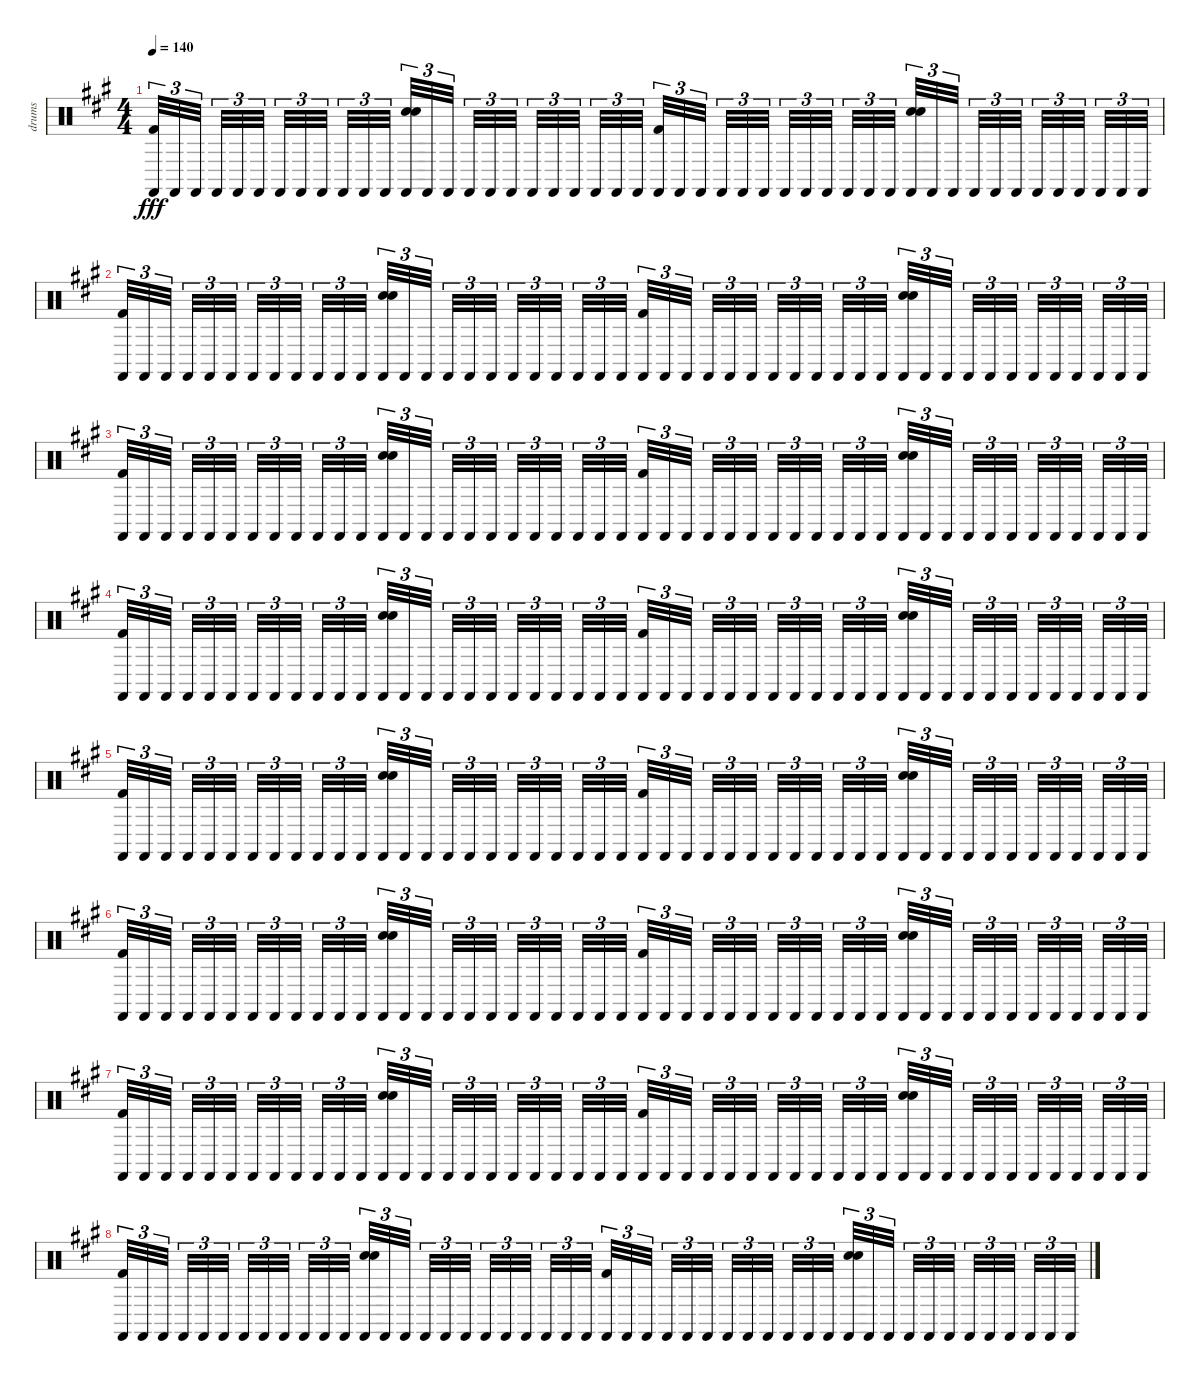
\track ("drums" "drums") {instrument percussion}
\staff {score}
\articulation defaults
\ts (4 4)
\tempo 140
\clef neutral
\ks f#minor
("Castanets (hit)" "Kick (hit) 2").32{tu (3 2) dy fff} "Castanets (hit)".32{tu (3 2)} "Castanets (hit)".32{tu (3 2) beam splitsecondary} "Castanets (hit)".32{tu (3 2)} "Castanets (hit)".32{tu (3 2)} "Castanets (hit)".32{tu (3 2) beam splitsecondary} "Castanets (hit)".32{tu (3 2)} "Castanets (hit)".32{tu (3 2)} "Castanets (hit)".32{tu (3 2) beam splitsecondary} "Castanets (hit)".32{tu (3 2)} "Castanets (hit)".32{tu (3 2)} "Castanets (hit)".32{tu (3 2)} ("Castanets (hit)" "Hand Clap (hit)" "Electric Snare (hit)").32{tu (3 2)} "Castanets (hit)".32{tu (3 2)} "Castanets (hit)".32{tu (3 2) beam splitsecondary} "Castanets (hit)".32{tu (3 2)} "Castanets (hit)".32{tu (3 2)} "Castanets (hit)".32{tu (3 2) beam splitsecondary} "Castanets (hit)".32{tu (3 2)} "Castanets (hit)".32{tu (3 2)} "Castanets (hit)".32{tu (3 2) beam splitsecondary} "Castanets (hit)".32{tu (3 2)} "Castanets (hit)".32{tu (3 2)} "Castanets (hit)".32{tu (3 2)} ("Castanets (hit)" "Kick (hit) 2").32{tu (3 2)} "Castanets (hit)".32{tu (3 2)} "Castanets (hit)".32{tu (3 2) beam splitsecondary} "Castanets (hit)".32{tu (3 2)} "Castanets (hit)".32{tu (3 2)} "Castanets (hit)".32{tu (3 2) beam splitsecondary} "Castanets (hit)".32{tu (3 2)} "Castanets (hit)".32{tu (3 2)} "Castanets (hit)".32{tu (3 2) beam splitsecondary} "Castanets (hit)".32{tu (3 2)} "Castanets (hit)".32{tu (3 2)} "Castanets (hit)".32{tu (3 2)} ("Castanets (hit)" "Hand Clap (hit)" "Electric Snare (hit)").32{tu (3 2)} "Castanets (hit)".32{tu (3 2)} "Castanets (hit)".32{tu (3 2) beam splitsecondary} "Castanets (hit)".32{tu (3 2)} "Castanets (hit)".32{tu (3 2)} "Castanets (hit)".32{tu (3 2) beam splitsecondary} "Castanets (hit)".32{tu (3 2)} "Castanets (hit)".32{tu (3 2)} "Castanets (hit)".32{tu (3 2) beam splitsecondary} "Castanets (hit)".32{tu (3 2)} "Castanets (hit)".32{tu (3 2)} "Castanets (hit)".32{tu (3 2)} |
("Castanets (hit)" "Kick (hit) 2").32{tu (3 2)} "Castanets (hit)".32{tu (3 2)} "Castanets (hit)".32{tu (3 2) beam splitsecondary} "Castanets (hit)".32{tu (3 2)} "Castanets (hit)".32{tu (3 2)} "Castanets (hit)".32{tu (3 2) beam splitsecondary} "Castanets (hit)".32{tu (3 2)} "Castanets (hit)".32{tu (3 2)} "Castanets (hit)".32{tu (3 2) beam splitsecondary} "Castanets (hit)".32{tu (3 2)} "Castanets (hit)".32{tu (3 2)} "Castanets (hit)".32{tu (3 2)} ("Castanets (hit)" "Hand Clap (hit)" "Electric Snare (hit)").32{tu (3 2)} "Castanets (hit)".32{tu (3 2)} "Castanets (hit)".32{tu (3 2) beam splitsecondary} "Castanets (hit)".32{tu (3 2)} "Castanets (hit)".32{tu (3 2)} "Castanets (hit)".32{tu (3 2) beam splitsecondary} "Castanets (hit)".32{tu (3 2)} "Castanets (hit)".32{tu (3 2)} "Castanets (hit)".32{tu (3 2) beam splitsecondary} "Castanets (hit)".32{tu (3 2)} "Castanets (hit)".32{tu (3 2)} "Castanets (hit)".32{tu (3 2)} ("Castanets (hit)" "Kick (hit) 2").32{tu (3 2)} "Castanets (hit)".32{tu (3 2)} "Castanets (hit)".32{tu (3 2) beam splitsecondary} "Castanets (hit)".32{tu (3 2)} "Castanets (hit)".32{tu (3 2)} "Castanets (hit)".32{tu (3 2) beam splitsecondary} "Castanets (hit)".32{tu (3 2)} "Castanets (hit)".32{tu (3 2)} "Castanets (hit)".32{tu (3 2) beam splitsecondary} "Castanets (hit)".32{tu (3 2)} "Castanets (hit)".32{tu (3 2)} "Castanets (hit)".32{tu (3 2)} ("Castanets (hit)" "Hand Clap (hit)" "Electric Snare (hit)").32{tu (3 2)} "Castanets (hit)".32{tu (3 2)} "Castanets (hit)".32{tu (3 2) beam splitsecondary} "Castanets (hit)".32{tu (3 2)} "Castanets (hit)".32{tu (3 2)} "Castanets (hit)".32{tu (3 2) beam splitsecondary} "Castanets (hit)".32{tu (3 2)} "Castanets (hit)".32{tu (3 2)} "Castanets (hit)".32{tu (3 2) beam splitsecondary} "Castanets (hit)".32{tu (3 2)} "Castanets (hit)".32{tu (3 2)} "Castanets (hit)".32{tu (3 2)} |
("Castanets (hit)" "Kick (hit) 2").32{tu (3 2)} "Castanets (hit)".32{tu (3 2)} "Castanets (hit)".32{tu (3 2) beam splitsecondary} "Castanets (hit)".32{tu (3 2)} "Castanets (hit)".32{tu (3 2)} "Castanets (hit)".32{tu (3 2) beam splitsecondary} "Castanets (hit)".32{tu (3 2)} "Castanets (hit)".32{tu (3 2)} "Castanets (hit)".32{tu (3 2) beam splitsecondary} "Castanets (hit)".32{tu (3 2)} "Castanets (hit)".32{tu (3 2)} "Castanets (hit)".32{tu (3 2)} ("Castanets (hit)" "Hand Clap (hit)" "Electric Snare (hit)").32{tu (3 2)} "Castanets (hit)".32{tu (3 2)} "Castanets (hit)".32{tu (3 2) beam splitsecondary} "Castanets (hit)".32{tu (3 2)} "Castanets (hit)".32{tu (3 2)} "Castanets (hit)".32{tu (3 2) beam splitsecondary} "Castanets (hit)".32{tu (3 2)} "Castanets (hit)".32{tu (3 2)} "Castanets (hit)".32{tu (3 2) beam splitsecondary} "Castanets (hit)".32{tu (3 2)} "Castanets (hit)".32{tu (3 2)} "Castanets (hit)".32{tu (3 2)} ("Castanets (hit)" "Kick (hit) 2").32{tu (3 2)} "Castanets (hit)".32{tu (3 2)} "Castanets (hit)".32{tu (3 2) beam splitsecondary} "Castanets (hit)".32{tu (3 2)} "Castanets (hit)".32{tu (3 2)} "Castanets (hit)".32{tu (3 2) beam splitsecondary} "Castanets (hit)".32{tu (3 2)} "Castanets (hit)".32{tu (3 2)} "Castanets (hit)".32{tu (3 2) beam splitsecondary} "Castanets (hit)".32{tu (3 2)} "Castanets (hit)".32{tu (3 2)} "Castanets (hit)".32{tu (3 2)} ("Castanets (hit)" "Hand Clap (hit)" "Electric Snare (hit)").32{tu (3 2)} "Castanets (hit)".32{tu (3 2)} "Castanets (hit)".32{tu (3 2) beam splitsecondary} "Castanets (hit)".32{tu (3 2)} "Castanets (hit)".32{tu (3 2)} "Castanets (hit)".32{tu (3 2) beam splitsecondary} "Castanets (hit)".32{tu (3 2)} "Castanets (hit)".32{tu (3 2)} "Castanets (hit)".32{tu (3 2) beam splitsecondary} "Castanets (hit)".32{tu (3 2)} "Castanets (hit)".32{tu (3 2)} "Castanets (hit)".32{tu (3 2)} |
("Castanets (hit)" "Kick (hit) 2").32{tu (3 2)} "Castanets (hit)".32{tu (3 2)} "Castanets (hit)".32{tu (3 2) beam splitsecondary} "Castanets (hit)".32{tu (3 2)} "Castanets (hit)".32{tu (3 2)} "Castanets (hit)".32{tu (3 2) beam splitsecondary} "Castanets (hit)".32{tu (3 2)} "Castanets (hit)".32{tu (3 2)} "Castanets (hit)".32{tu (3 2) beam splitsecondary} "Castanets (hit)".32{tu (3 2)} "Castanets (hit)".32{tu (3 2)} "Castanets (hit)".32{tu (3 2)} ("Castanets (hit)" "Hand Clap (hit)" "Electric Snare (hit)").32{tu (3 2)} "Castanets (hit)".32{tu (3 2)} "Castanets (hit)".32{tu (3 2) beam splitsecondary} "Castanets (hit)".32{tu (3 2)} "Castanets (hit)".32{tu (3 2)} "Castanets (hit)".32{tu (3 2) beam splitsecondary} "Castanets (hit)".32{tu (3 2)} "Castanets (hit)".32{tu (3 2)} "Castanets (hit)".32{tu (3 2) beam splitsecondary} "Castanets (hit)".32{tu (3 2)} "Castanets (hit)".32{tu (3 2)} "Castanets (hit)".32{tu (3 2)} ("Castanets (hit)" "Kick (hit) 2").32{tu (3 2)} "Castanets (hit)".32{tu (3 2)} "Castanets (hit)".32{tu (3 2) beam splitsecondary} "Castanets (hit)".32{tu (3 2)} "Castanets (hit)".32{tu (3 2)} "Castanets (hit)".32{tu (3 2) beam splitsecondary} "Castanets (hit)".32{tu (3 2)} "Castanets (hit)".32{tu (3 2)} "Castanets (hit)".32{tu (3 2) beam splitsecondary} "Castanets (hit)".32{tu (3 2)} "Castanets (hit)".32{tu (3 2)} "Castanets (hit)".32{tu (3 2)} ("Castanets (hit)" "Hand Clap (hit)" "Electric Snare (hit)").32{tu (3 2)} "Castanets (hit)".32{tu (3 2)} "Castanets (hit)".32{tu (3 2) beam splitsecondary} "Castanets (hit)".32{tu (3 2)} "Castanets (hit)".32{tu (3 2)} "Castanets (hit)".32{tu (3 2) beam splitsecondary} "Castanets (hit)".32{tu (3 2)} "Castanets (hit)".32{tu (3 2)} "Castanets (hit)".32{tu (3 2) beam splitsecondary} "Castanets (hit)".32{tu (3 2)} "Castanets (hit)".32{tu (3 2)} "Castanets (hit)".32{tu (3 2)} |
("Castanets (hit)" "Kick (hit) 2").32{tu (3 2)} "Castanets (hit)".32{tu (3 2)} "Castanets (hit)".32{tu (3 2) beam splitsecondary} "Castanets (hit)".32{tu (3 2)} "Castanets (hit)".32{tu (3 2)} "Castanets (hit)".32{tu (3 2) beam splitsecondary} "Castanets (hit)".32{tu (3 2)} "Castanets (hit)".32{tu (3 2)} "Castanets (hit)".32{tu (3 2) beam splitsecondary} "Castanets (hit)".32{tu (3 2)} "Castanets (hit)".32{tu (3 2)} "Castanets (hit)".32{tu (3 2)} ("Castanets (hit)" "Hand Clap (hit)" "Electric Snare (hit)").32{tu (3 2)} "Castanets (hit)".32{tu (3 2)} "Castanets (hit)".32{tu (3 2) beam splitsecondary} "Castanets (hit)".32{tu (3 2)} "Castanets (hit)".32{tu (3 2)} "Castanets (hit)".32{tu (3 2) beam splitsecondary} "Castanets (hit)".32{tu (3 2)} "Castanets (hit)".32{tu (3 2)} "Castanets (hit)".32{tu (3 2) beam splitsecondary} "Castanets (hit)".32{tu (3 2)} "Castanets (hit)".32{tu (3 2)} "Castanets (hit)".32{tu (3 2)} ("Castanets (hit)" "Kick (hit) 2").32{tu (3 2)} "Castanets (hit)".32{tu (3 2)} "Castanets (hit)".32{tu (3 2) beam splitsecondary} "Castanets (hit)".32{tu (3 2)} "Castanets (hit)".32{tu (3 2)} "Castanets (hit)".32{tu (3 2) beam splitsecondary} "Castanets (hit)".32{tu (3 2)} "Castanets (hit)".32{tu (3 2)} "Castanets (hit)".32{tu (3 2) beam splitsecondary} "Castanets (hit)".32{tu (3 2)} "Castanets (hit)".32{tu (3 2)} "Castanets (hit)".32{tu (3 2)} ("Castanets (hit)" "Hand Clap (hit)" "Electric Snare (hit)").32{tu (3 2)} "Castanets (hit)".32{tu (3 2)} "Castanets (hit)".32{tu (3 2) beam splitsecondary} "Castanets (hit)".32{tu (3 2)} "Castanets (hit)".32{tu (3 2)} "Castanets (hit)".32{tu (3 2) beam splitsecondary} "Castanets (hit)".32{tu (3 2)} "Castanets (hit)".32{tu (3 2)} "Castanets (hit)".32{tu (3 2) beam splitsecondary} "Castanets (hit)".32{tu (3 2)} "Castanets (hit)".32{tu (3 2)} "Castanets (hit)".32{tu (3 2)} |
("Castanets (hit)" "Kick (hit) 2").32{tu (3 2)} "Castanets (hit)".32{tu (3 2)} "Castanets (hit)".32{tu (3 2) beam splitsecondary} "Castanets (hit)".32{tu (3 2)} "Castanets (hit)".32{tu (3 2)} "Castanets (hit)".32{tu (3 2) beam splitsecondary} "Castanets (hit)".32{tu (3 2)} "Castanets (hit)".32{tu (3 2)} "Castanets (hit)".32{tu (3 2) beam splitsecondary} "Castanets (hit)".32{tu (3 2)} "Castanets (hit)".32{tu (3 2)} "Castanets (hit)".32{tu (3 2)} ("Castanets (hit)" "Hand Clap (hit)" "Electric Snare (hit)").32{tu (3 2)} "Castanets (hit)".32{tu (3 2)} "Castanets (hit)".32{tu (3 2) beam splitsecondary} "Castanets (hit)".32{tu (3 2)} "Castanets (hit)".32{tu (3 2)} "Castanets (hit)".32{tu (3 2) beam splitsecondary} "Castanets (hit)".32{tu (3 2)} "Castanets (hit)".32{tu (3 2)} "Castanets (hit)".32{tu (3 2) beam splitsecondary} "Castanets (hit)".32{tu (3 2)} "Castanets (hit)".32{tu (3 2)} "Castanets (hit)".32{tu (3 2)} ("Castanets (hit)" "Kick (hit) 2").32{tu (3 2)} "Castanets (hit)".32{tu (3 2)} "Castanets (hit)".32{tu (3 2) beam splitsecondary} "Castanets (hit)".32{tu (3 2)} "Castanets (hit)".32{tu (3 2)} "Castanets (hit)".32{tu (3 2) beam splitsecondary} "Castanets (hit)".32{tu (3 2)} "Castanets (hit)".32{tu (3 2)} "Castanets (hit)".32{tu (3 2) beam splitsecondary} "Castanets (hit)".32{tu (3 2)} "Castanets (hit)".32{tu (3 2)} "Castanets (hit)".32{tu (3 2)} ("Castanets (hit)" "Hand Clap (hit)" "Electric Snare (hit)").32{tu (3 2)} "Castanets (hit)".32{tu (3 2)} "Castanets (hit)".32{tu (3 2) beam splitsecondary} "Castanets (hit)".32{tu (3 2)} "Castanets (hit)".32{tu (3 2)} "Castanets (hit)".32{tu (3 2) beam splitsecondary} "Castanets (hit)".32{tu (3 2)} "Castanets (hit)".32{tu (3 2)} "Castanets (hit)".32{tu (3 2) beam splitsecondary} "Castanets (hit)".32{tu (3 2)} "Castanets (hit)".32{tu (3 2)} "Castanets (hit)".32{tu (3 2)} |
("Castanets (hit)" "Kick (hit) 2").32{tu (3 2)} "Castanets (hit)".32{tu (3 2)} "Castanets (hit)".32{tu (3 2) beam splitsecondary} "Castanets (hit)".32{tu (3 2)} "Castanets (hit)".32{tu (3 2)} "Castanets (hit)".32{tu (3 2) beam splitsecondary} "Castanets (hit)".32{tu (3 2)} "Castanets (hit)".32{tu (3 2)} "Castanets (hit)".32{tu (3 2) beam splitsecondary} "Castanets (hit)".32{tu (3 2)} "Castanets (hit)".32{tu (3 2)} "Castanets (hit)".32{tu (3 2)} ("Castanets (hit)" "Hand Clap (hit)" "Electric Snare (hit)").32{tu (3 2)} "Castanets (hit)".32{tu (3 2)} "Castanets (hit)".32{tu (3 2) beam splitsecondary} "Castanets (hit)".32{tu (3 2)} "Castanets (hit)".32{tu (3 2)} "Castanets (hit)".32{tu (3 2) beam splitsecondary} "Castanets (hit)".32{tu (3 2)} "Castanets (hit)".32{tu (3 2)} "Castanets (hit)".32{tu (3 2) beam splitsecondary} "Castanets (hit)".32{tu (3 2)} "Castanets (hit)".32{tu (3 2)} "Castanets (hit)".32{tu (3 2)} ("Castanets (hit)" "Kick (hit) 2").32{tu (3 2)} "Castanets (hit)".32{tu (3 2)} "Castanets (hit)".32{tu (3 2) beam splitsecondary} "Castanets (hit)".32{tu (3 2)} "Castanets (hit)".32{tu (3 2)} "Castanets (hit)".32{tu (3 2) beam splitsecondary} "Castanets (hit)".32{tu (3 2)} "Castanets (hit)".32{tu (3 2)} "Castanets (hit)".32{tu (3 2) beam splitsecondary} "Castanets (hit)".32{tu (3 2)} "Castanets (hit)".32{tu (3 2)} "Castanets (hit)".32{tu (3 2)} ("Castanets (hit)" "Hand Clap (hit)" "Electric Snare (hit)").32{tu (3 2)} "Castanets (hit)".32{tu (3 2)} "Castanets (hit)".32{tu (3 2) beam splitsecondary} "Castanets (hit)".32{tu (3 2)} "Castanets (hit)".32{tu (3 2)} "Castanets (hit)".32{tu (3 2) beam splitsecondary} "Castanets (hit)".32{tu (3 2)} "Castanets (hit)".32{tu (3 2)} "Castanets (hit)".32{tu (3 2) beam splitsecondary} "Castanets (hit)".32{tu (3 2)} "Castanets (hit)".32{tu (3 2)} "Castanets (hit)".32{tu (3 2)} |
("Castanets (hit)" "Kick (hit) 2").32{tu (3 2)} "Castanets (hit)".32{tu (3 2)} "Castanets (hit)".32{tu (3 2) beam splitsecondary} "Castanets (hit)".32{tu (3 2)} "Castanets (hit)".32{tu (3 2)} "Castanets (hit)".32{tu (3 2) beam splitsecondary} "Castanets (hit)".32{tu (3 2)} "Castanets (hit)".32{tu (3 2)} "Castanets (hit)".32{tu (3 2) beam splitsecondary} "Castanets (hit)".32{tu (3 2)} "Castanets (hit)".32{tu (3 2)} "Castanets (hit)".32{tu (3 2)} ("Castanets (hit)" "Hand Clap (hit)" "Electric Snare (hit)").32{tu (3 2)} "Castanets (hit)".32{tu (3 2)} "Castanets (hit)".32{tu (3 2) beam splitsecondary} "Castanets (hit)".32{tu (3 2)} "Castanets (hit)".32{tu (3 2)} "Castanets (hit)".32{tu (3 2) beam splitsecondary} "Castanets (hit)".32{tu (3 2)} "Castanets (hit)".32{tu (3 2)} "Castanets (hit)".32{tu (3 2) beam splitsecondary} "Castanets (hit)".32{tu (3 2)} "Castanets (hit)".32{tu (3 2)} "Castanets (hit)".32{tu (3 2)} ("Castanets (hit)" "Kick (hit) 2").32{tu (3 2)} "Castanets (hit)".32{tu (3 2)} "Castanets (hit)".32{tu (3 2) beam splitsecondary} "Castanets (hit)".32{tu (3 2)} "Castanets (hit)".32{tu (3 2)} "Castanets (hit)".32{tu (3 2) beam splitsecondary} "Castanets (hit)".32{tu (3 2)} "Castanets (hit)".32{tu (3 2)} "Castanets (hit)".32{tu (3 2) beam splitsecondary} "Castanets (hit)".32{tu (3 2)} "Castanets (hit)".32{tu (3 2)} "Castanets (hit)".32{tu (3 2)} ("Castanets (hit)" "Hand Clap (hit)" "Electric Snare (hit)").32{tu (3 2)} "Castanets (hit)".32{tu (3 2)} "Castanets (hit)".32{tu (3 2) beam splitsecondary} "Castanets (hit)".32{tu (3 2)} "Castanets (hit)".32{tu (3 2)} "Castanets (hit)".32{tu (3 2) beam splitsecondary} "Castanets (hit)".32{tu (3 2)} "Castanets (hit)".32{tu (3 2)} "Castanets (hit)".32{tu (3 2) beam splitsecondary} "Castanets (hit)".32{tu (3 2)} "Castanets (hit)".32{tu (3 2)} "Castanets (hit)".32{tu (3 2)}
